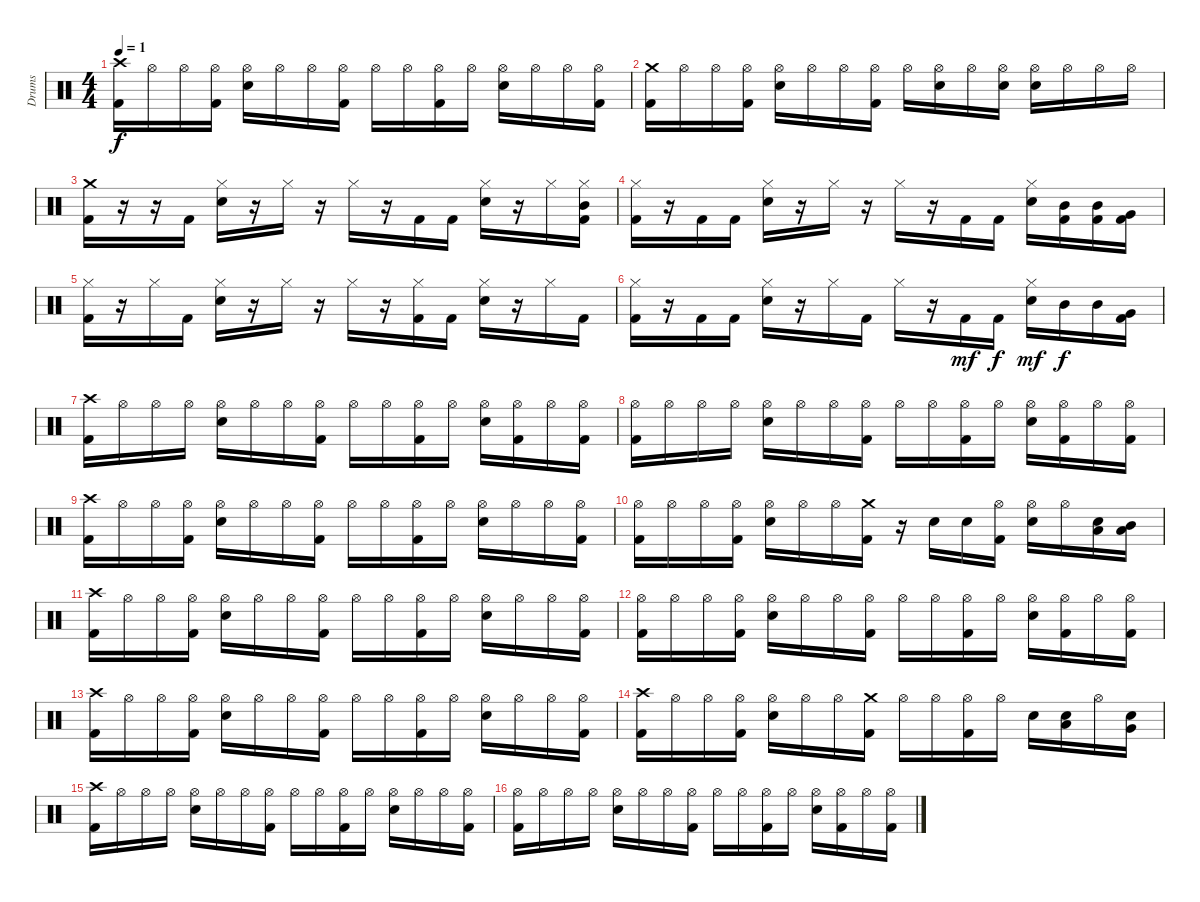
\track ("Drums" "Drums") {instrument percussion}
\staff {score}
\articulation defaults
\ts (4 4)
\tempo 1
\clef neutral
\ks c
("Crash high (hit)" "Kick (hit) 2").16{dy f} "Hi-Hat (open)".16 "Hi-Hat (open)".16 ("Hi-Hat (open)" "Kick (hit) 2").16 ("Hi-Hat (open)" "Snare (hit) 2").16 "Hi-Hat (open)".16 "Hi-Hat (open)".16 ("Kick (hit) 2" "Hi-Hat (open)").16 "Hi-Hat (open)".16 "Hi-Hat (open)".16 ("Hi-Hat (open)" "Kick (hit) 2").16 "Hi-Hat (open)".16 ("Hi-Hat (open)" "Snare (hit) 2").16 "Hi-Hat (open)".16 "Hi-Hat (open)".16 ("Kick (hit) 2" "Hi-Hat (open)").16 |
("Kick (hit) 2" "Crash medium (hit)").16 "Hi-Hat (open)".16 "Hi-Hat (open)".16 ("Hi-Hat (open)" "Kick (hit) 2").16 ("Hi-Hat (open)" "Snare (hit) 2").16 "Hi-Hat (open)".16 "Hi-Hat (open)".16 ("Hi-Hat (open)" "Kick (hit) 2").16 "Hi-Hat (open)".16 ("Hi-Hat (open)" "Snare (hit) 2").16 "Hi-Hat (open)".16 ("Hi-Hat (open)" "Snare (hit) 2").16 ("Hi-Hat (open)" "Snare (hit) 2").16 "Hi-Hat (open)".16 "Hi-Hat (open)".16 "Hi-Hat (open)".16 |
("Kick (hit) 2" "Crash medium (hit)").16 r.16 r.16 "Kick (hit) 2".16 ("Hi-Hat (closed)" "Snare (hit) 2").16 r.16 "Hi-Hat (closed)".16 r.16 "Hi-Hat (closed)".16 r.16 "Kick (hit) 2".16 "Kick (hit) 2".16 ("Hi-Hat (closed)" "Snare (hit) 2").16 r.16 "Hi-Hat (closed)".16 ("Mid Tom (hit)" "Kick (hit) 2" "Hi-Hat (closed)").16 |
("Hi-Hat (closed)" "Kick (hit) 2").16 r.16 "Kick (hit) 2".16 "Kick (hit) 2".16 ("Hi-Hat (closed)" "Snare (hit) 2").16 r.16 "Hi-Hat (closed)".16 r.16 "Hi-Hat (closed)".16 r.16 "Kick (hit) 2".16 "Kick (hit) 2".16 ("Hi-Hat (closed)" "Snare (hit) 2").16 ("Kick (hit) 2" "Mid Tom (hit)").16 ("Kick (hit) 2" "Mid Tom (hit)").16 ("Kick (hit) 2" "Very Low Tom (hit)").16 |
("Hi-Hat (closed)" "Kick (hit) 2").16 r.16 "Hi-Hat (closed)".16 "Kick (hit) 2".16 ("Hi-Hat (closed)" "Snare (hit) 2").16 r.16 "Hi-Hat (closed)".16 r.16 "Hi-Hat (closed)".16 r.16 ("Hi-Hat (closed)" "Kick (hit) 2").16 "Kick (hit) 2".16 ("Hi-Hat (closed)" "Snare (hit) 2").16 r.16 "Hi-Hat (closed)".16 "Kick (hit) 2".16 |
("Hi-Hat (closed)" "Kick (hit) 2").16 r.16 "Kick (hit) 2".16 "Kick (hit) 2".16 ("Hi-Hat (closed)" "Snare (hit) 2").16 r.16 "Hi-Hat (closed)".16 "Kick (hit) 2".16 "Hi-Hat (closed)".16 r.16 "Kick (hit) 2".16{dy mf} "Kick (hit) 2".16{dy f} ("Hi-Hat (closed)" "Snare (hit) 2").16{dy mf} "Mid Tom (hit)".16{dy f} "Mid Tom (hit)".16 ("Kick (hit) 2" "Very Low Tom (hit)").16 |
("Crash high (hit)" "Kick (hit) 2").16 "Hi-Hat (open)".16 "Hi-Hat (open)".16 "Hi-Hat (open)".16 ("Hi-Hat (open)" "Snare (hit) 2").16 "Hi-Hat (open)".16 "Hi-Hat (open)".16 ("Kick (hit) 2" "Hi-Hat (open)").16 "Hi-Hat (open)".16 "Hi-Hat (open)".16 ("Hi-Hat (open)" "Kick (hit) 2").16 "Hi-Hat (open)".16 ("Hi-Hat (open)" "Snare (hit) 2").16 ("Kick (hit) 2" "Hi-Hat (open)").16 "Hi-Hat (open)".16 ("Kick (hit) 2" "Hi-Hat (open)").16 |
("Hi-Hat (open)" "Kick (hit) 2").16 "Hi-Hat (open)".16 "Hi-Hat (open)".16 "Hi-Hat (open)".16 ("Hi-Hat (open)" "Snare (hit) 2").16 "Hi-Hat (open)".16 "Hi-Hat (open)".16 ("Kick (hit) 2" "Hi-Hat (open)").16 "Hi-Hat (open)".16 "Hi-Hat (open)".16 ("Hi-Hat (open)" "Kick (hit) 2").16 "Hi-Hat (open)".16 ("Hi-Hat (open)" "Snare (hit) 2").16 ("Hi-Hat (open)" "Kick (hit) 2").16 "Hi-Hat (open)".16 ("Hi-Hat (open)" "Kick (hit) 2").16 |
("Crash high (hit)" "Kick (hit) 2").16 "Hi-Hat (open)".16 "Hi-Hat (open)".16 ("Hi-Hat (open)" "Kick (hit) 2").16 ("Hi-Hat (open)" "Snare (hit) 2").16 "Hi-Hat (open)".16 "Hi-Hat (open)".16 ("Kick (hit) 2" "Hi-Hat (open)").16 "Hi-Hat (open)".16 "Hi-Hat (open)".16 ("Hi-Hat (open)" "Kick (hit) 2").16 "Hi-Hat (open)".16 ("Hi-Hat (open)" "Snare (hit) 2").16 "Hi-Hat (open)".16 "Hi-Hat (open)".16 ("Hi-Hat (open)" "Kick (hit) 2").16 |
("Hi-Hat (open)" "Kick (hit) 2").16 "Hi-Hat (open)".16 "Hi-Hat (open)".16 ("Hi-Hat (open)" "Kick (hit) 2").16 ("Hi-Hat (open)" "Snare (hit) 2").16 "Hi-Hat (open)".16 "Hi-Hat (open)".16 ("Kick (hit) 2" "Crash medium (hit)").16 r.16 "Snare (hit) 2".16 "Snare (hit) 2".16 ("Hi-Hat (open)" "Kick (hit) 2").16 ("Snare (hit) 2" "Hi-Hat (open)").16 "Hi-Hat (open)".16 ("Snare (hit) 2" "Low Tom (hit)").16 ("Low Floor Tom (hit)" "Mid Tom (hit)").16 |
("Crash high (hit)" "Kick (hit) 2").16 "Hi-Hat (open)".16 "Hi-Hat (open)".16 ("Hi-Hat (open)" "Kick (hit) 2").16 ("Hi-Hat (open)" "Snare (hit) 2").16 "Hi-Hat (open)".16 "Hi-Hat (open)".16 ("Kick (hit) 2" "Hi-Hat (open)").16 "Hi-Hat (open)".16 "Hi-Hat (open)".16 ("Hi-Hat (open)" "Kick (hit) 2").16 "Hi-Hat (open)".16 ("Hi-Hat (open)" "Snare (hit) 2").16 "Hi-Hat (open)".16 "Hi-Hat (open)".16 ("Hi-Hat (open)" "Kick (hit) 2").16 |
("Hi-Hat (open)" "Kick (hit) 2").16 "Hi-Hat (open)".16 "Hi-Hat (open)".16 ("Hi-Hat (open)" "Kick (hit) 2").16 ("Hi-Hat (open)" "Snare (hit) 2").16 "Hi-Hat (open)".16 "Hi-Hat (open)".16 ("Kick (hit) 2" "Hi-Hat (open)").16 "Hi-Hat (open)".16 "Hi-Hat (open)".16 ("Hi-Hat (open)" "Kick (hit) 2").16 "Hi-Hat (open)".16 ("Hi-Hat (open)" "Snare (hit) 2").16 ("Hi-Hat (open)" "Kick (hit) 2").16 "Hi-Hat (open)".16 ("Kick (hit) 2" "Hi-Hat (open)").16 |
("Crash high (hit)" "Kick (hit) 2").16 "Hi-Hat (open)".16 "Hi-Hat (open)".16 ("Hi-Hat (open)" "Kick (hit) 2").16 ("Hi-Hat (open)" "Snare (hit) 2").16 "Hi-Hat (open)".16 "Hi-Hat (open)".16 ("Kick (hit) 2" "Hi-Hat (open)").16 "Hi-Hat (open)".16 "Hi-Hat (open)".16 ("Hi-Hat (open)" "Kick (hit) 2").16 "Hi-Hat (open)".16 ("Hi-Hat (open)" "Snare (hit) 2").16 "Hi-Hat (open)".16 "Hi-Hat (open)".16 ("Hi-Hat (open)" "Kick (hit) 2").16 |
("Kick (hit) 2" "Crash high (hit)").16 "Hi-Hat (open)".16 "Hi-Hat (open)".16 ("Hi-Hat (open)" "Kick (hit) 2").16 ("Hi-Hat (open)" "Snare (hit) 2").16 "Hi-Hat (open)".16 "Hi-Hat (open)".16 ("Kick (hit) 2" "Crash medium (hit)").16 "Hi-Hat (open)".16 "Hi-Hat (open)".16 ("Hi-Hat (open)" "Kick (hit) 2").16 "Hi-Hat (open)".16 "Snare (hit) 2".16 ("Snare (hit) 2" "Low Tom (hit)").16 "Hi-Hat (open)".16 ("Snare (hit) 2" "Very Low Tom (hit)").16 |
("Crash high (hit)" "Kick (hit) 2").16 "Hi-Hat (open)".16 "Hi-Hat (open)".16 "Hi-Hat (open)".16 ("Hi-Hat (open)" "Snare (hit) 2").16 "Hi-Hat (open)".16 "Hi-Hat (open)".16 ("Kick (hit) 2" "Hi-Hat (open)").16 "Hi-Hat (open)".16 "Hi-Hat (open)".16 ("Hi-Hat (open)" "Kick (hit) 2").16 "Hi-Hat (open)".16 ("Hi-Hat (open)" "Snare (hit) 2").16 "Hi-Hat (open)".16 "Hi-Hat (open)".16 ("Kick (hit) 2" "Hi-Hat (open)").16 |
("Hi-Hat (open)" "Kick (hit) 2").16 "Hi-Hat (open)".16 "Hi-Hat (open)".16 "Hi-Hat (open)".16 ("Hi-Hat (open)" "Snare (hit) 2").16 "Hi-Hat (open)".16 "Hi-Hat (open)".16 ("Kick (hit) 2" "Hi-Hat (open)").16 "Hi-Hat (open)".16 "Hi-Hat (open)".16 ("Hi-Hat (open)" "Kick (hit) 2").16 "Hi-Hat (open)".16 ("Hi-Hat (open)" "Snare (hit) 2").16 ("Hi-Hat (open)" "Kick (hit) 2").16 "Hi-Hat (open)".16 ("Hi-Hat (open)" "Kick (hit) 2").16
